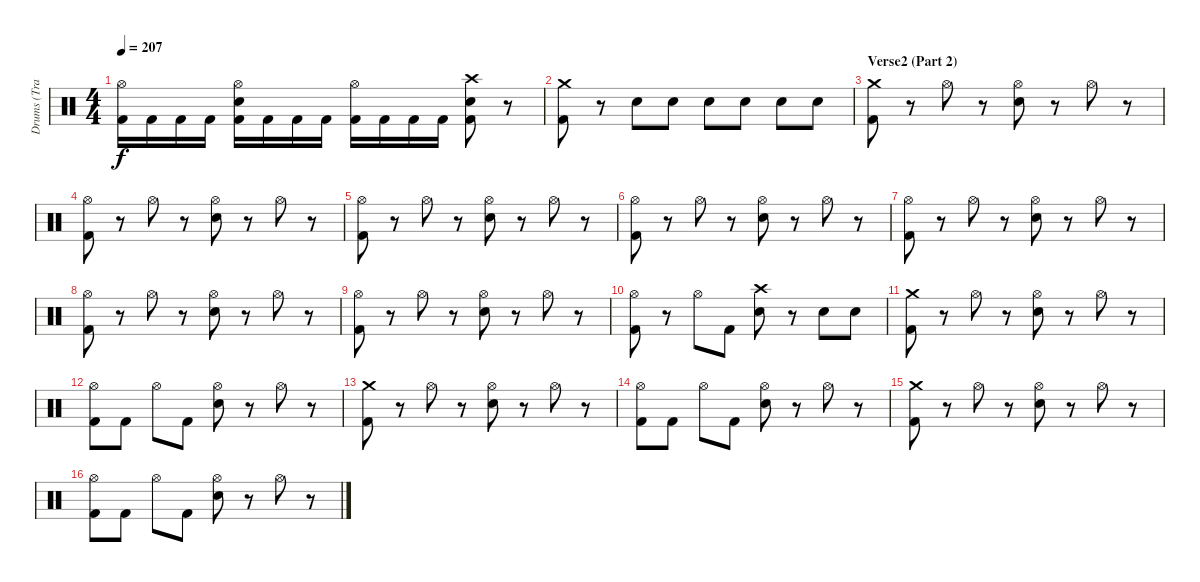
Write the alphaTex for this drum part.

\track ("Drums (Travis)" "Drums (Tra") {instrument percussion}
\staff {score}
\articulation defaults
\ts (4 4)
\tempo 207
\clef neutral
\ks c
("Hi-Hat (open)" "Kick (hit) 2").16{dy f} "Kick (hit) 2".16 "Kick (hit) 2".16 "Kick (hit) 2".16 ("Hi-Hat (open)" "Snare (hit) 2" "Kick (hit) 2").16 "Kick (hit) 2".16 "Kick (hit) 2".16 "Kick (hit) 2".16 ("Hi-Hat (open)" "Kick (hit) 2").16 "Kick (hit) 2".16 "Kick (hit) 2".16 "Kick (hit) 2".16 ("Crash high (hit)" "Snare (hit) 2" "Kick (hit) 2").8 r.8 |
("Crash medium (hit)" "Kick (hit) 2").8 r.8 "Snare (hit) 2".8 "Snare (hit) 2".8 "Snare (hit) 2".8 "Snare (hit) 2".8 "Snare (hit) 2".8 "Snare (hit) 2".8 |
\section ("" "Verse2 (Part 2)")
("Crash medium (hit)" "Kick (hit) 2").8 r.8 "Hi-Hat (open)".8 r.8 ("Hi-Hat (open)" "Snare (hit) 2").8 r.8 "Hi-Hat (open)".8 r.8 |
("Hi-Hat (open)" "Kick (hit) 2").8 r.8 "Hi-Hat (open)".8 r.8 ("Hi-Hat (open)" "Snare (hit) 2").8 r.8 "Hi-Hat (open)".8 r.8 |
("Hi-Hat (open)" "Kick (hit) 2").8 r.8 "Hi-Hat (open)".8 r.8 ("Hi-Hat (open)" "Snare (hit) 2").8 r.8 "Hi-Hat (open)".8 r.8 |
("Hi-Hat (open)" "Kick (hit) 2").8 r.8 "Hi-Hat (open)".8 r.8 ("Hi-Hat (open)" "Snare (hit) 2").8 r.8 "Hi-Hat (open)".8 r.8 |
("Hi-Hat (open)" "Kick (hit) 2").8 r.8 "Hi-Hat (open)".8 r.8 ("Hi-Hat (open)" "Snare (hit) 2").8 r.8 "Hi-Hat (open)".8 r.8 |
("Hi-Hat (open)" "Kick (hit) 2").8 r.8 "Hi-Hat (open)".8 r.8 ("Hi-Hat (open)" "Snare (hit) 2").8 r.8 "Hi-Hat (open)".8 r.8 |
("Hi-Hat (open)" "Kick (hit) 2").8 r.8 "Hi-Hat (open)".8 r.8 ("Hi-Hat (open)" "Snare (hit) 2").8 r.8 "Hi-Hat (open)".8 r.8 |
("Hi-Hat (open)" "Kick (hit) 2").8 r.8 "Hi-Hat (open)".8 "Kick (hit) 2".8 ("Crash high (hit)" "Snare (hit) 2").8 r.8 "Snare (hit) 2".8 "Snare (hit) 2".8 |
("Crash medium (hit)" "Kick (hit) 2").8 r.8 "Hi-Hat (open)".8 r.8 ("Hi-Hat (open)" "Snare (hit) 2").8 r.8 "Hi-Hat (open)".8 r.8 |
("Hi-Hat (open)" "Kick (hit) 2").8 "Kick (hit) 2".8 "Hi-Hat (open)".8 "Kick (hit) 2".8 ("Hi-Hat (open)" "Snare (hit) 2").8 r.8 "Hi-Hat (open)".8 r.8 |
("Crash medium (hit)" "Kick (hit) 2").8 r.8 "Hi-Hat (open)".8 r.8 ("Hi-Hat (open)" "Snare (hit) 2").8 r.8 "Hi-Hat (open)".8 r.8 |
("Hi-Hat (open)" "Kick (hit) 2").8 "Kick (hit) 2".8 "Hi-Hat (open)".8 "Kick (hit) 2".8 ("Hi-Hat (open)" "Snare (hit) 2").8 r.8 "Hi-Hat (open)".8 r.8 |
("Crash medium (hit)" "Kick (hit) 2").8 r.8 "Hi-Hat (open)".8 r.8 ("Hi-Hat (open)" "Snare (hit) 2").8 r.8 "Hi-Hat (open)".8 r.8 |
("Hi-Hat (open)" "Kick (hit) 2").8 "Kick (hit) 2".8 "Hi-Hat (open)".8 "Kick (hit) 2".8 ("Hi-Hat (open)" "Snare (hit) 2").8 r.8 "Hi-Hat (open)".8 r.8
